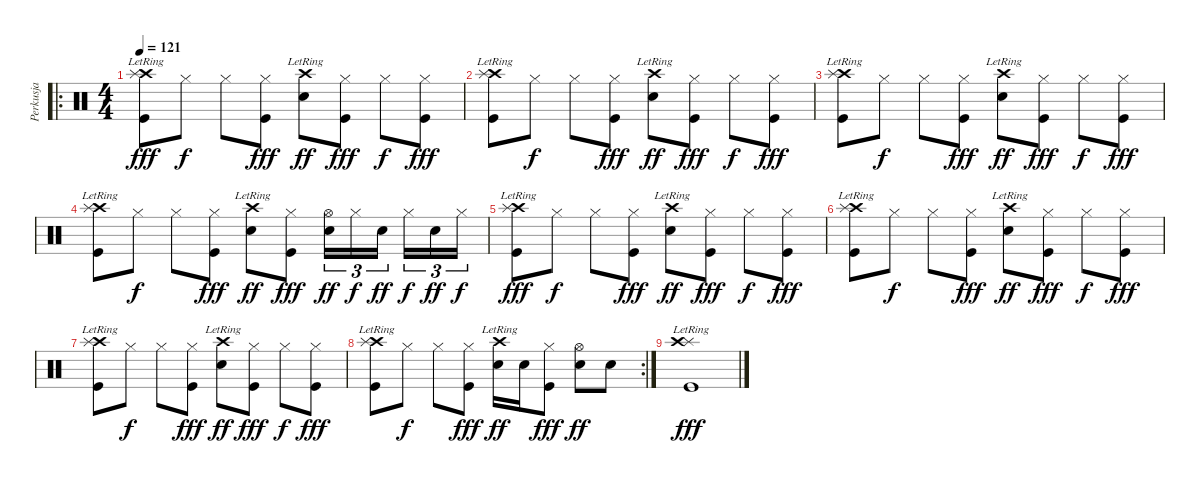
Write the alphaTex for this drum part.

\track ("Perkusja" "Perkusja") {instrument percussion}
\staff {score}
\articulation defaults
\ro
\ts (4 4)
\tempo 121
\clef neutral
\ks c
("Crash high (hit)"{lr} "Splash (hit)"{lr} "Kick (hit)").8{dy fff} "Hi-Hat (closed)".8{dy f} "Hi-Hat (closed)".8 ("Hi-Hat (closed)" "Kick (hit)").8{dy fff} ("Crash high (hit)"{lr} "Electric Snare (hit)").8{dy ff} ("Hi-Hat (closed)" "Kick (hit)").8{dy fff} "Hi-Hat (closed)".8{dy f} ("Hi-Hat (closed)" "Kick (hit)").8{dy fff} |
("Crash high (hit)"{lr} "Splash (hit)"{lr} "Kick (hit)").8 "Hi-Hat (closed)".8{dy f} "Hi-Hat (closed)".8 ("Hi-Hat (closed)" "Kick (hit)").8{dy fff} ("Crash high (hit)"{lr} "Electric Snare (hit)").8{dy ff} ("Hi-Hat (closed)" "Kick (hit)").8{dy fff} "Hi-Hat (closed)".8{dy f} ("Hi-Hat (closed)" "Kick (hit)").8{dy fff} |
("Crash high (hit)"{lr} "Splash (hit)"{lr} "Kick (hit)").8 "Hi-Hat (closed)".8{dy f} "Hi-Hat (closed)".8 ("Hi-Hat (closed)" "Kick (hit)").8{dy fff} ("Crash high (hit)"{lr} "Electric Snare (hit)").8{dy ff} ("Hi-Hat (closed)" "Kick (hit)").8{dy fff} "Hi-Hat (closed)".8{dy f} ("Hi-Hat (closed)" "Kick (hit)").8{dy fff} |
("Crash high (hit)"{lr} "Splash (hit)"{lr} "Kick (hit)").8 "Hi-Hat (closed)".8{dy f} "Hi-Hat (closed)".8 ("Hi-Hat (closed)" "Kick (hit)").8{dy fff} ("Crash high (hit)"{lr} "Electric Snare (hit)").8{dy ff} ("Hi-Hat (closed)" "Kick (hit)").8{dy fff} ("Hi-Hat (open)" "Electric Snare (hit)").16{tu (3 2) dy ff} "Hi-Hat (closed)".16{tu (3 2) dy f} "Electric Snare (hit)".16{tu (3 2) dy ff} "Hi-Hat (closed)".16{tu (3 2) dy f} "Electric Snare (hit)".16{tu (3 2) dy ff} "Hi-Hat (closed)".16{tu (3 2) dy f} |
("Crash high (hit)"{lr} "Splash (hit)"{lr} "Kick (hit)").8{dy fff} "Hi-Hat (closed)".8{dy f} "Hi-Hat (closed)".8 ("Hi-Hat (closed)" "Kick (hit)").8{dy fff} ("Crash high (hit)"{lr} "Electric Snare (hit)").8{dy ff} ("Hi-Hat (closed)" "Kick (hit)").8{dy fff} "Hi-Hat (closed)".8{dy f} ("Hi-Hat (closed)" "Kick (hit)").8{dy fff} |
("Crash high (hit)"{lr} "Splash (hit)"{lr} "Kick (hit)").8 "Hi-Hat (closed)".8{dy f} "Hi-Hat (closed)".8 ("Hi-Hat (closed)" "Kick (hit)").8{dy fff} ("Crash high (hit)"{lr} "Electric Snare (hit)").8{dy ff} ("Hi-Hat (closed)" "Kick (hit)").8{dy fff} "Hi-Hat (closed)".8{dy f} ("Hi-Hat (closed)" "Kick (hit)").8{dy fff} |
("Crash high (hit)"{lr} "Splash (hit)"{lr} "Kick (hit)").8 "Hi-Hat (closed)".8{dy f} "Hi-Hat (closed)".8 ("Hi-Hat (closed)" "Kick (hit)").8{dy fff} ("Crash high (hit)"{lr} "Electric Snare (hit)").8{dy ff} ("Hi-Hat (closed)" "Kick (hit)").8{dy fff} "Hi-Hat (closed)".8{dy f} ("Hi-Hat (closed)" "Kick (hit)").8{dy fff} |
\rc 2
("Crash high (hit)"{lr} "Splash (hit)"{lr} "Kick (hit)").8 "Hi-Hat (closed)".8{dy f} "Hi-Hat (closed)".8 ("Hi-Hat (closed)" "Kick (hit)").8{dy fff} ("Crash high (hit)"{lr} "Electric Snare (hit)").16{dy ff} "Electric Snare (hit)".16 ("Hi-Hat (closed)" "Kick (hit)").8{dy fff} ("Hi-Hat (open)" "Electric Snare (hit)").8{dy ff} "Electric Snare (hit)".8 |
("Splash (hit)"{lr} "Crash high (hit)"{lr} "Kick (hit)").1{dy fff}
